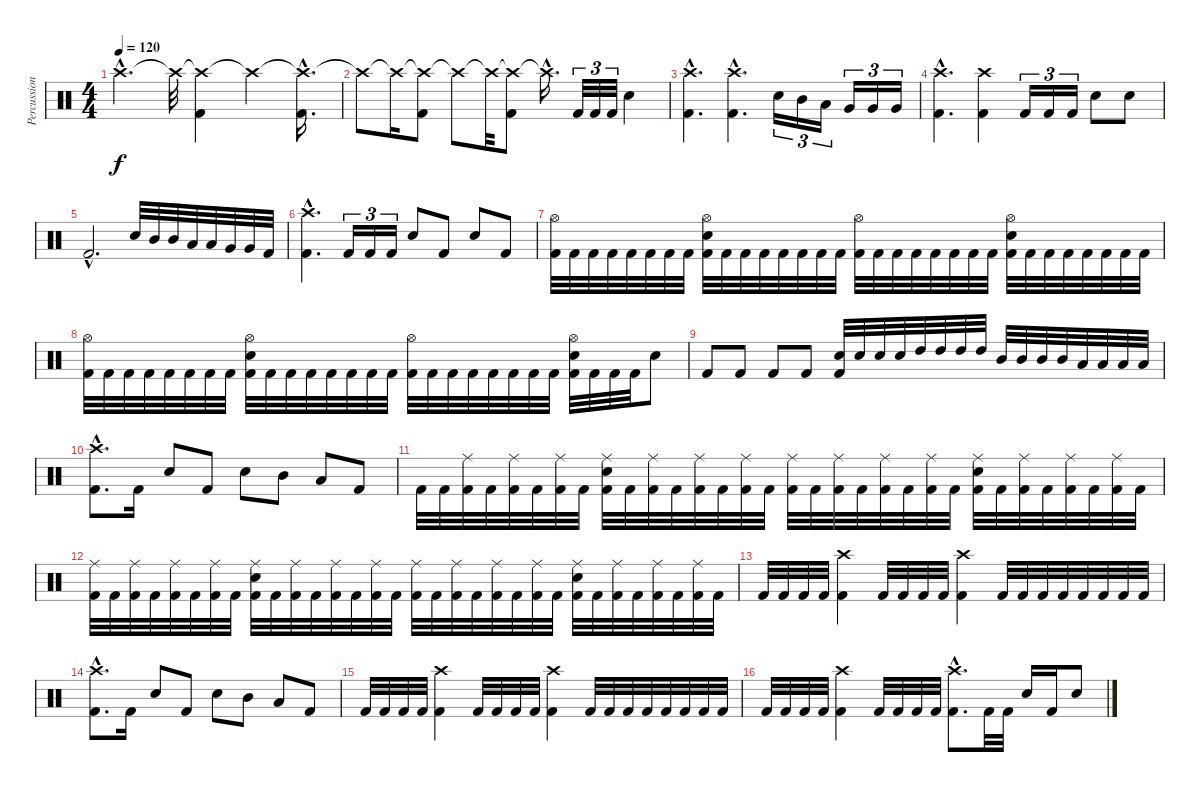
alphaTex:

\track ("Percussion" "Percussion") {instrument percussion}
\staff {score}
\articulation defaults
\ts (4 4)
\tempo 120
\clef neutral
\ks c "Crash high (hit)"{hac t}.4{d dy f} "Crash high (hit)"{t}.32
("Crash high (hit)"{t} "Kick (hit) 2").4 "Crash high (hit)"{t}.4 ("Crash high (hit)"{hac t} "Kick (hit) 2"{hac}).16{d} |
"Crash high (hit)"{t}.8 "Crash high (hit)"{t}.16 ("Crash high (hit)"{t} "Kick (hit) 2").8 "Crash high (hit)"{t}.8 "Crash high (hit)"{t}.32 ("Crash high (hit)"{t} "Kick (hit) 2").8 "Crash high (hit)"{hac t}.16{d} "Kick (hit) 2".32{tu (3 2)} "Kick (hit) 2".32{tu (3 2)} "Kick (hit) 2".32{tu (3 2)} "Snare (hit) 2".4 |
("Crash high (hit)"{hac} "Kick (hit) 2"{hac}).4{d} ("Crash high (hit)"{hac} "Kick (hit) 2"{hac}).4{d} "Snare (hit) 2".16{tu (3 2)} "Mid Tom (hit)".16{tu (3 2)} "Low Tom (hit)".16{tu (3 2)} "Very Low Tom (hit)".16{tu (3 2)} "Very Low Tom (hit)".16{tu (3 2)} "Very Low Tom (hit)".16{tu (3 2)} |
("Crash high (hit)"{hac} "Kick (hit) 2"{hac}).4{d} ("Crash high (hit)" "Kick (hit) 2").4 "Kick (hit) 2".16{tu (3 2)} "Kick (hit) 2".16{tu (3 2)} "Kick (hit) 2".16{tu (3 2)} "Snare (hit) 2".8 "Snare (hit) 2".8 |
"Kick (hit) 2"{hac}.2{d} "Snare (hit) 2".32 "Mid Tom (hit)".32 "Mid Tom (hit)".32 "Low Tom (hit)".32 "Low Tom (hit)".32 "Very Low Tom (hit)".32 "Very Low Tom (hit)".32 "Kick (hit) 2".32 |
("Crash high (hit)"{hac} "Kick (hit) 2"{hac}).4{d} "Kick (hit) 2".16{tu (3 2)} "Kick (hit) 2".16{tu (3 2)} "Kick (hit) 2".16{tu (3 2)} "Snare (hit) 2".8 "Kick (hit) 2".8 "Snare (hit) 2".8 "Kick (hit) 2".8 |
("Hi-Hat (open)" "Kick (hit) 2").32 "Kick (hit) 2".32 "Kick (hit) 2".32 "Kick (hit) 2".32 "Kick (hit) 2".32 "Kick (hit) 2".32 "Kick (hit) 2".32 "Kick (hit) 2".32 ("Hi-Hat (open)" "Snare (hit) 2" "Kick (hit) 2").32 "Kick (hit) 2".32 "Kick (hit) 2".32 "Kick (hit) 2".32 "Kick (hit) 2".32 "Kick (hit) 2".32 "Kick (hit) 2".32 "Kick (hit) 2".32 ("Hi-Hat (open)" "Kick (hit) 2").32 "Kick (hit) 2".32 "Kick (hit) 2".32 "Kick (hit) 2".32 "Kick (hit) 2".32 "Kick (hit) 2".32 "Kick (hit) 2".32 "Kick (hit) 2".32 ("Hi-Hat (open)" "Snare (hit) 2" "Kick (hit) 2").32 "Kick (hit) 2".32 "Kick (hit) 2".32 "Kick (hit) 2".32 "Kick (hit) 2".32 "Kick (hit) 2".32 "Kick (hit) 2".32 "Kick (hit) 2".32 |
("Hi-Hat (open)" "Kick (hit) 2").32 "Kick (hit) 2".32 "Kick (hit) 2".32 "Kick (hit) 2".32 "Kick (hit) 2".32 "Kick (hit) 2".32 "Kick (hit) 2".32 "Kick (hit) 2".32 ("Hi-Hat (open)" "Snare (hit) 2" "Kick (hit) 2").32 "Kick (hit) 2".32 "Kick (hit) 2".32 "Kick (hit) 2".32 "Kick (hit) 2".32 "Kick (hit) 2".32 "Kick (hit) 2".32 "Kick (hit) 2".32 ("Hi-Hat (open)" "Kick (hit) 2").32 "Kick (hit) 2".32 "Kick (hit) 2".32 "Kick (hit) 2".32 "Kick (hit) 2".32 "Kick (hit) 2".32 "Kick (hit) 2".32 "Kick (hit) 2".32 ("Hi-Hat (open)" "Snare (hit) 2" "Kick (hit) 2").32 "Kick (hit) 2".32 "Kick (hit) 2".32 "Kick (hit) 2".32 "Snare (hit) 2".8 |
"Kick (hit) 2".8 "Kick (hit) 2".8 "Kick (hit) 2".8 "Kick (hit) 2".8 ("Snare (hit) 2" "Kick (hit) 2").32 "Snare (hit) 2".32 "Snare (hit) 2".32 "Snare (hit) 2".32 "High Tom (hit)".32 "High Tom (hit)".32 "High Tom (hit)".32 "High Tom (hit)".32 "Mid Tom (hit)".32 "Mid Tom (hit)".32 "Mid Tom (hit)".32 "Mid Tom (hit)".32 "Low Tom (hit)".32 "Low Tom (hit)".32 "Low Tom (hit)".32 "Low Tom (hit)".32 |
("Crash high (hit)"{hac} "Kick (hit) 2"{hac}).8{d} "Kick (hit) 2".16 "Snare (hit) 2".8 "Kick (hit) 2".8 "Snare (hit) 2".8 "Mid Tom (hit)".8 "Low Tom (hit)".8 "Kick (hit) 2".8 |
"Kick (hit) 2".32 "Kick (hit) 2".32 ("Ride (middle)" "Kick (hit) 2").32 "Kick (hit) 2".32 ("Ride (middle)" "Kick (hit) 2").32 "Kick (hit) 2".32 ("Ride (middle)" "Kick (hit) 2").32 "Kick (hit) 2".32 ("Ride (middle)" "Snare (hit) 2" "Kick (hit) 2").32 "Kick (hit) 2".32 ("Ride (middle)" "Kick (hit) 2").32 "Kick (hit) 2".32 ("Ride (middle)" "Kick (hit) 2").32 "Kick (hit) 2".32 ("Ride (middle)" "Kick (hit) 2").32 "Kick (hit) 2".32 ("Ride (middle)" "Kick (hit) 2").32 "Kick (hit) 2".32 ("Ride (middle)" "Kick (hit) 2").32 "Kick (hit) 2".32 ("Ride (middle)" "Kick (hit) 2").32 "Kick (hit) 2".32 ("Ride (middle)" "Kick (hit) 2").32 "Kick (hit) 2".32 ("Ride (middle)" "Snare (hit) 2" "Kick (hit) 2").32 "Kick (hit) 2".32 ("Ride (middle)" "Kick (hit) 2").32 "Kick (hit) 2".32 ("Ride (middle)" "Kick (hit) 2").32 "Kick (hit) 2".32 ("Ride (middle)" "Kick (hit) 2").32 "Kick (hit) 2".32 |
("Ride (middle)" "Kick (hit) 2").32 "Kick (hit) 2".32 ("Ride (middle)" "Kick (hit) 2").32 "Kick (hit) 2".32 ("Ride (middle)" "Kick (hit) 2").32 "Kick (hit) 2".32 ("Ride (middle)" "Kick (hit) 2").32 "Kick (hit) 2".32 ("Ride (middle)" "Snare (hit) 2" "Kick (hit) 2").32 "Kick (hit) 2".32 ("Ride (middle)" "Kick (hit) 2").32 "Kick (hit) 2".32 ("Ride (middle)" "Kick (hit) 2").32 "Kick (hit) 2".32 ("Ride (middle)" "Kick (hit) 2").32 "Kick (hit) 2".32 ("Ride (middle)" "Kick (hit) 2").32 "Kick (hit) 2".32 ("Ride (middle)" "Kick (hit) 2").32 "Kick (hit) 2".32 ("Ride (middle)" "Kick (hit) 2").32 "Kick (hit) 2".32 ("Ride (middle)" "Kick (hit) 2").32 "Kick (hit) 2".32 ("Ride (middle)" "Snare (hit) 2" "Kick (hit) 2").32 "Kick (hit) 2".32 ("Ride (middle)" "Kick (hit) 2").32 "Kick (hit) 2".32 ("Ride (middle)" "Kick (hit) 2").32 "Kick (hit) 2".32 ("Ride (middle)" "Kick (hit) 2").32 "Kick (hit) 2".32 |
"Kick (hit) 2".32 "Kick (hit) 2".32 "Kick (hit) 2".32 "Kick (hit) 2".32 ("Crash high (hit)" "Kick (hit) 2").4 "Kick (hit) 2".32 "Kick (hit) 2".32 "Kick (hit) 2".32 "Kick (hit) 2".32 ("Crash high (hit)" "Kick (hit) 2").4 "Kick (hit) 2".32 "Kick (hit) 2".32 "Kick (hit) 2".32 "Kick (hit) 2".32 "Kick (hit) 2".32 "Kick (hit) 2".32 "Kick (hit) 2".32 "Kick (hit) 2".32 |
("Crash high (hit)"{hac} "Kick (hit) 2"{hac}).8{d} "Kick (hit) 2".16 "Snare (hit) 2".8 "Kick (hit) 2".8 "Snare (hit) 2".8 "Mid Tom (hit)".8 "Low Tom (hit)".8 "Kick (hit) 2".8 |
"Kick (hit) 2".32 "Kick (hit) 2".32 "Kick (hit) 2".32 "Kick (hit) 2".32 ("Crash high (hit)" "Kick (hit) 2").4 "Kick (hit) 2".32 "Kick (hit) 2".32 "Kick (hit) 2".32 "Kick (hit) 2".32 ("Crash high (hit)" "Kick (hit) 2").4 "Kick (hit) 2".32 "Kick (hit) 2".32 "Kick (hit) 2".32 "Kick (hit) 2".32 "Kick (hit) 2".32 "Kick (hit) 2".32 "Kick (hit) 2".32 "Kick (hit) 2".32 |
"Kick (hit) 2".32 "Kick (hit) 2".32 "Kick (hit) 2".32 "Kick (hit) 2".32 ("Crash high (hit)" "Kick (hit) 2").4 "Kick (hit) 2".32 "Kick (hit) 2".32 "Kick (hit) 2".32 "Kick (hit) 2".32 ("Crash high (hit)"{hac} "Kick (hit) 2"{hac}).8{d} "Kick (hit) 2".32 "Kick (hit) 2".32 "Snare (hit) 2".16 "Kick (hit) 2".16 "Snare (hit) 2".8
